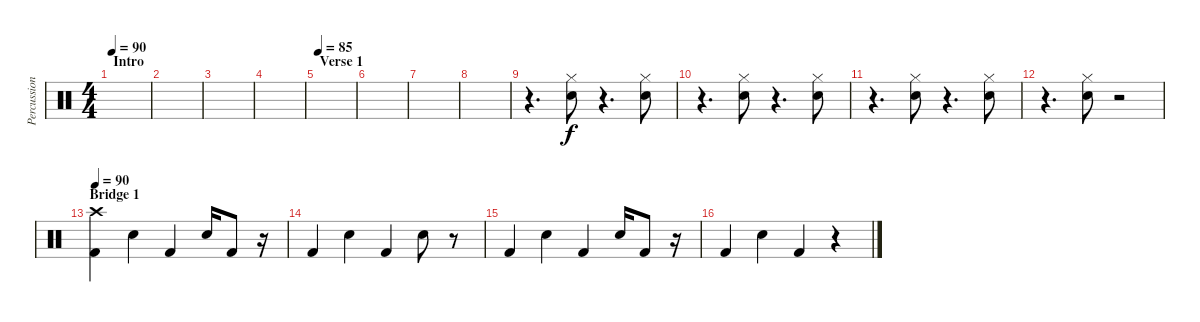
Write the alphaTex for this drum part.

\track ("Percussion" "Percussion") {instrument percussion}
\staff {score}
\articulation defaults
\ts (4 4)
\section ("" "Intro")
\tempo 90
\clef neutral
\ks c
|
|
|
|
\section ("" "Verse 1")
\tempo 85
|
|
|
|
r.4{d} ("Hi-Hat (closed)" "Snare (hit) 2").8 r.4{d} ("Hi-Hat (closed)" "Snare (hit) 2").8 |
r.4{d} ("Hi-Hat (closed)" "Snare (hit) 2").8 r.4{d} ("Hi-Hat (closed)" "Snare (hit) 2").8 |
r.4{d} ("Hi-Hat (closed)" "Snare (hit) 2").8 r.4{d} ("Hi-Hat (closed)" "Snare (hit) 2").8 |
r.4{d} ("Hi-Hat (closed)" "Snare (hit) 2").8 r.2 |
\section ("" "Bridge 1")
\tempo 90
("Crash high (hit)" "Kick (hit) 2").4 "Snare (hit) 2".4 "Kick (hit) 2".4 "Snare (hit) 2".16 "Kick (hit) 2".8 r.16 |
"Kick (hit) 2".4 "Snare (hit) 2".4 "Kick (hit) 2".4 "Snare (hit) 2".8 r.8 |
"Kick (hit) 2".4 "Snare (hit) 2".4 "Kick (hit) 2".4 "Snare (hit) 2".16 "Kick (hit) 2".8 r.16 |
"Kick (hit) 2".4 "Snare (hit) 2".4 "Kick (hit) 2".4 r.4
